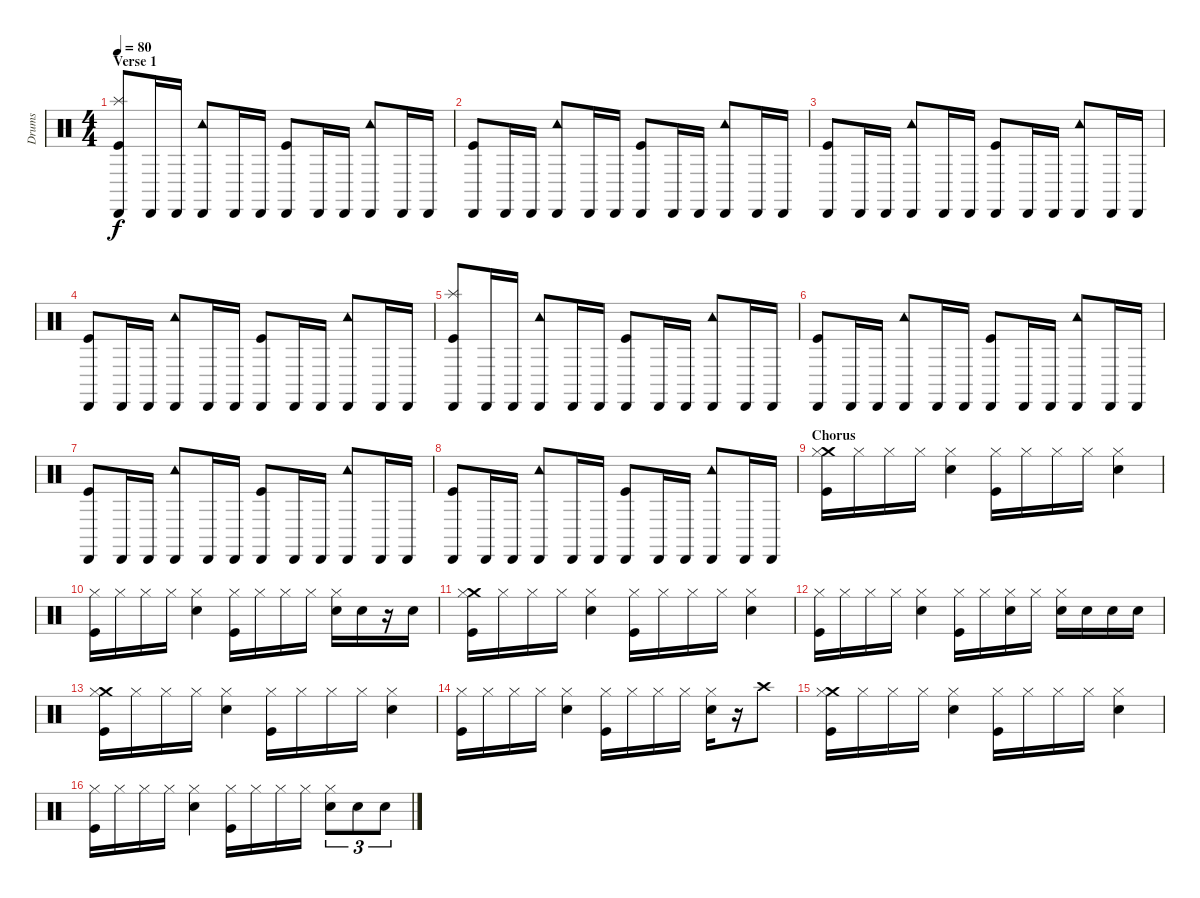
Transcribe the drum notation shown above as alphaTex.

\track ("Drums" "Drums") {instrument percussion}
\staff {score}
\articulation defaults
\ts (4 4)
\section ("" "Verse 1")
\tempo 80
\clef neutral
\ks c
("Cabasa (hit)" "Splash (hit)" "Kick (hit)").8{dy f} "Cabasa (hit)".16 "Cabasa (hit)".16 ("Cabasa (hit)" "Tambourine (hit)").8 "Cabasa (hit)".16 "Cabasa (hit)".16 ("Cabasa (hit)" "Kick (hit)").8 "Cabasa (hit)".16 "Cabasa (hit)".16 ("Cabasa (hit)" "Tambourine (hit)").8 "Cabasa (hit)".16 "Cabasa (hit)".16 |
("Cabasa (hit)" "Kick (hit)").8 "Cabasa (hit)".16 "Cabasa (hit)".16 ("Cabasa (hit)" "Tambourine (hit)").8 "Cabasa (hit)".16 "Cabasa (hit)".16 ("Cabasa (hit)" "Kick (hit)").8 "Cabasa (hit)".16 "Cabasa (hit)".16 ("Cabasa (hit)" "Tambourine (hit)").8 "Cabasa (hit)".16 "Cabasa (hit)".16 |
("Cabasa (hit)" "Kick (hit)").8 "Cabasa (hit)".16 "Cabasa (hit)".16 ("Cabasa (hit)" "Tambourine (hit)").8 "Cabasa (hit)".16 "Cabasa (hit)".16 ("Cabasa (hit)" "Kick (hit)").8 "Cabasa (hit)".16 "Cabasa (hit)".16 ("Cabasa (hit)" "Tambourine (hit)").8 "Cabasa (hit)".16 "Cabasa (hit)".16 |
("Cabasa (hit)" "Kick (hit)").8 "Cabasa (hit)".16 "Cabasa (hit)".16 ("Cabasa (hit)" "Tambourine (hit)").8 "Cabasa (hit)".16 "Cabasa (hit)".16 ("Cabasa (hit)" "Kick (hit)").8 "Cabasa (hit)".16 "Cabasa (hit)".16 ("Cabasa (hit)" "Tambourine (hit)").8 "Cabasa (hit)".16 "Cabasa (hit)".16 |
("Cabasa (hit)" "Splash (hit)" "Kick (hit)").8 "Cabasa (hit)".16 "Cabasa (hit)".16 ("Cabasa (hit)" "Tambourine (hit)").8 "Cabasa (hit)".16 "Cabasa (hit)".16 ("Cabasa (hit)" "Kick (hit)").8 "Cabasa (hit)".16 "Cabasa (hit)".16 ("Cabasa (hit)" "Tambourine (hit)").8 "Cabasa (hit)".16 "Cabasa (hit)".16 |
("Cabasa (hit)" "Kick (hit)").8 "Cabasa (hit)".16 "Cabasa (hit)".16 ("Cabasa (hit)" "Tambourine (hit)").8 "Cabasa (hit)".16 "Cabasa (hit)".16 ("Cabasa (hit)" "Kick (hit)").8 "Cabasa (hit)".16 "Cabasa (hit)".16 ("Cabasa (hit)" "Tambourine (hit)").8 "Cabasa (hit)".16 "Cabasa (hit)".16 |
("Cabasa (hit)" "Kick (hit)").8 "Cabasa (hit)".16 "Cabasa (hit)".16 ("Cabasa (hit)" "Tambourine (hit)").8 "Cabasa (hit)".16 "Cabasa (hit)".16 ("Cabasa (hit)" "Kick (hit)").8 "Cabasa (hit)".16 "Cabasa (hit)".16 ("Cabasa (hit)" "Tambourine (hit)").8 "Cabasa (hit)".16 "Cabasa (hit)".16 |
("Cabasa (hit)" "Kick (hit)").8 "Cabasa (hit)".16 "Cabasa (hit)".16 ("Cabasa (hit)" "Tambourine (hit)").8 "Cabasa (hit)".16 "Cabasa (hit)".16 ("Cabasa (hit)" "Kick (hit)").8 "Cabasa (hit)".16 "Cabasa (hit)".16 ("Cabasa (hit)" "Tambourine (hit)").8 "Cabasa (hit)".16 "Cabasa (hit)".16 |
\section ("" "Chorus")
("Crash medium (hit)" "Hi-Hat (closed)" "Kick (hit)").16 "Hi-Hat (closed)".16 "Hi-Hat (closed)".16 "Hi-Hat (closed)".16 ("Hi-Hat (closed)" "Snare (hit) 2").4 ("Hi-Hat (closed)" "Kick (hit)").16 "Hi-Hat (closed)".16 "Hi-Hat (closed)".16 "Hi-Hat (closed)".16 ("Hi-Hat (closed)" "Snare (hit) 2").4 |
("Hi-Hat (closed)" "Kick (hit)").16 "Hi-Hat (closed)".16 "Hi-Hat (closed)".16 "Hi-Hat (closed)".16 ("Hi-Hat (closed)" "Snare (hit) 2").4 ("Hi-Hat (closed)" "Kick (hit)").16 "Hi-Hat (closed)".16 "Hi-Hat (closed)".16 "Hi-Hat (closed)".16 ("Hi-Hat (closed)" "Snare (hit) 2").16 "Snare (hit) 2".16 r.16 "Snare (hit) 2".16 |
("Crash medium (hit)" "Hi-Hat (closed)" "Kick (hit)").16 "Hi-Hat (closed)".16 "Hi-Hat (closed)".16 "Hi-Hat (closed)".16 ("Hi-Hat (closed)" "Snare (hit) 2").4 ("Hi-Hat (closed)" "Kick (hit)").16 "Hi-Hat (closed)".16 "Hi-Hat (closed)".16 "Hi-Hat (closed)".16 ("Hi-Hat (closed)" "Snare (hit) 2").4 |
("Hi-Hat (closed)" "Kick (hit)").16 "Hi-Hat (closed)".16 "Hi-Hat (closed)".16 "Hi-Hat (closed)".16 ("Hi-Hat (closed)" "Snare (hit) 2").4 ("Hi-Hat (closed)" "Kick (hit)").16 "Hi-Hat (closed)".16 ("Hi-Hat (closed)" "Snare (hit) 2").16 "Hi-Hat (closed)".16 ("Hi-Hat (closed)" "Snare (hit) 2").16 "Snare (hit) 2".16 "Snare (hit) 2".16 "Snare (hit) 2".16 |
("Crash medium (hit)" "Hi-Hat (closed)" "Kick (hit)").16 "Hi-Hat (closed)".16 "Hi-Hat (closed)".16 "Hi-Hat (closed)".16 ("Hi-Hat (closed)" "Snare (hit) 2").4 ("Hi-Hat (closed)" "Kick (hit)").16 "Hi-Hat (closed)".16 "Hi-Hat (closed)".16 "Hi-Hat (closed)".16 ("Hi-Hat (closed)" "Snare (hit) 2").4 |
("Hi-Hat (closed)" "Kick (hit)").16 "Hi-Hat (closed)".16 "Hi-Hat (closed)".16 "Hi-Hat (closed)".16 ("Hi-Hat (closed)" "Snare (hit) 2").4 ("Hi-Hat (closed)" "Kick (hit)").16 "Hi-Hat (closed)".16 "Hi-Hat (closed)".16 "Hi-Hat (closed)".16 ("Hi-Hat (closed)" "Snare (hit) 2").16 r.16 "Crash high (hit)".8 |
("Crash medium (hit)" "Hi-Hat (closed)" "Kick (hit)").16 "Hi-Hat (closed)".16 "Hi-Hat (closed)".16 "Hi-Hat (closed)".16 ("Hi-Hat (closed)" "Snare (hit) 2").4 ("Hi-Hat (closed)" "Kick (hit)").16 "Hi-Hat (closed)".16 "Hi-Hat (closed)".16 "Hi-Hat (closed)".16 ("Hi-Hat (closed)" "Snare (hit) 2").4 |
("Hi-Hat (closed)" "Kick (hit)").16 "Hi-Hat (closed)".16 "Hi-Hat (closed)".16 "Hi-Hat (closed)".16 ("Hi-Hat (closed)" "Snare (hit) 2").4 ("Hi-Hat (closed)" "Kick (hit)").16 "Hi-Hat (closed)".16 "Hi-Hat (closed)".16 "Hi-Hat (closed)".16 ("Hi-Hat (closed)" "Snare (hit) 2").8{tu (3 2)} "Snare (hit) 2".8{tu (3 2)} "Snare (hit) 2".8{tu (3 2)}
